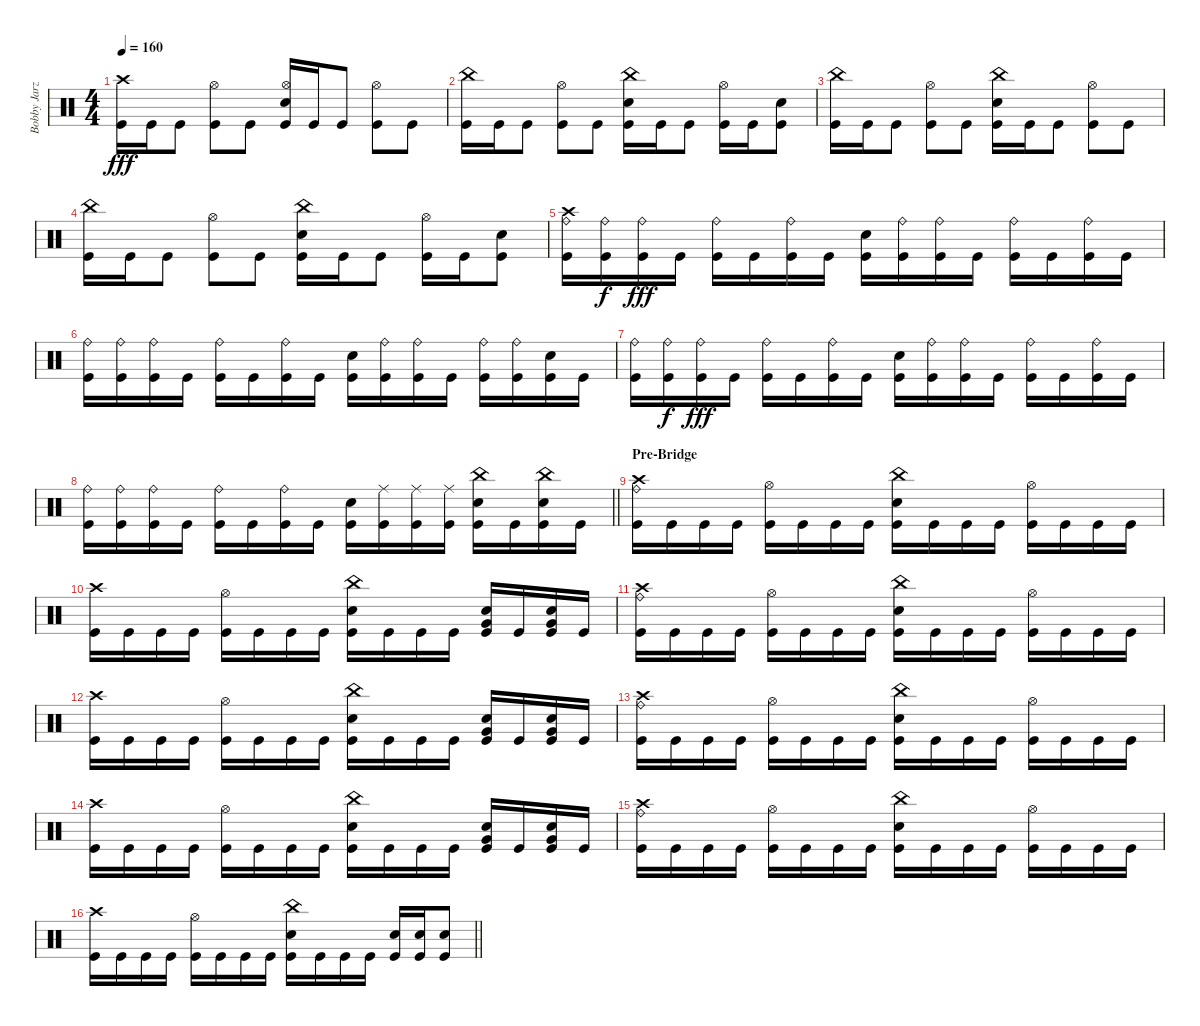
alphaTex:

\track ("Bobby Jarzombek" "Bobby Jarz") {instrument percussion}
\staff {score}
\articulation defaults
\ts (4 4)
\tempo 160
\clef neutral
\ks c
("Crash high (hit)" "Kick (hit)").16{dy fff} "Kick (hit)".16 "Kick (hit)".8 ("Hi-Hat (open)" "Kick (hit)").8 "Kick (hit)".8 ("Hi-Hat (open)" "Electric Snare (hit)" "Kick (hit)").16 "Kick (hit)".16 "Kick (hit)".8 ("Hi-Hat (open)" "Kick (hit)").8 "Kick (hit)".8 |
("China (hit)" "Kick (hit)").16 "Kick (hit)".16 "Kick (hit)".8 ("Hi-Hat (open)" "Kick (hit)").8 "Kick (hit)".8 ("China (hit)" "Electric Snare (hit)" "Kick (hit)").16 "Kick (hit)".16 "Kick (hit)".8 ("Hi-Hat (open)" "Kick (hit)").16 "Kick (hit)".16 ("Electric Snare (hit)" "Kick (hit)").8 |
("China (hit)" "Kick (hit)").16 "Kick (hit)".16 "Kick (hit)".8 ("Hi-Hat (open)" "Kick (hit)").8 "Kick (hit)".8 ("China (hit)" "Electric Snare (hit)" "Kick (hit)").16 "Kick (hit)".16 "Kick (hit)".8 ("Hi-Hat (open)" "Kick (hit)").8 "Kick (hit)".8 |
("China (hit)" "Kick (hit)").16 "Kick (hit)".16 "Kick (hit)".8 ("Hi-Hat (open)" "Kick (hit)").8 "Kick (hit)".8 ("China (hit)" "Electric Snare (hit)" "Kick (hit)").16 "Kick (hit)".16 "Kick (hit)".8 ("Hi-Hat (open)" "Kick (hit)").16 "Kick (hit)".16 ("Electric Snare (hit)" "Kick (hit)").8 |
("Crash high (hit)" "Ride (bell)" "Kick (hit)").16 ("Ride (bell)" "Kick (hit)").16{dy f} ("Ride (bell)" "Kick (hit)").16{dy fff} "Kick (hit)".16 ("Ride (bell)" "Kick (hit)").16 "Kick (hit)".16 ("Ride (bell)" "Kick (hit)").16 "Kick (hit)".16 ("Electric Snare (hit)" "Kick (hit)").16 ("Ride (bell)" "Kick (hit)").16 ("Ride (bell)" "Kick (hit)").16 "Kick (hit)".16 ("Ride (bell)" "Kick (hit)").16 "Kick (hit)".16 ("Ride (bell)" "Kick (hit)").16 "Kick (hit)".16 |
("Ride (bell)" "Kick (hit)").16 ("Ride (bell)" "Kick (hit)").16 ("Ride (bell)" "Kick (hit)").16 "Kick (hit)".16 ("Ride (bell)" "Kick (hit)").16 "Kick (hit)".16 ("Ride (bell)" "Kick (hit)").16 "Kick (hit)".16 ("Electric Snare (hit)" "Kick (hit)").16 ("Ride (bell)" "Kick (hit)").16 ("Ride (bell)" "Kick (hit)").16 "Kick (hit)".16 ("Ride (bell)" "Kick (hit)").16 ("Ride (bell)" "Kick (hit)").16 ("Electric Snare (hit)" "Kick (hit)").16 "Kick (hit)".16 |
("Ride (bell)" "Kick (hit)").16 ("Ride (bell)" "Kick (hit)").16{dy f} ("Ride (bell)" "Kick (hit)").16{dy fff} "Kick (hit)".16 ("Ride (bell)" "Kick (hit)").16 "Kick (hit)".16 ("Ride (bell)" "Kick (hit)").16 "Kick (hit)".16 ("Electric Snare (hit)" "Kick (hit)").16 ("Ride (bell)" "Kick (hit)").16 ("Ride (bell)" "Kick (hit)").16 "Kick (hit)".16 ("Ride (bell)" "Kick (hit)").16 "Kick (hit)".16 ("Ride (bell)" "Kick (hit)").16 "Kick (hit)".16 |
\barLineRight lightlight
("Ride (bell)" "Kick (hit)").16 ("Ride (bell)" "Kick (hit)").16 ("Ride (bell)" "Kick (hit)").16 "Kick (hit)".16 ("Ride (bell)" "Kick (hit)").16 "Kick (hit)".16 ("Ride (bell)" "Kick (hit)").16 "Kick (hit)".16 ("Electric Snare (hit)" "Kick (hit)").16 ("Ride (middle)" "Kick (hit)").16 ("Ride (middle)" "Kick (hit)").16 ("Ride (middle)" "Kick (hit)").16 ("China (hit)" "Electric Snare (hit)" "Kick (hit)").16 "Kick (hit)".16 ("China (hit)" "Electric Snare (hit)" "Kick (hit)").16 "Kick (hit)".16 |
\section ("" "Pre-Bridge")
("Crash high (hit)" "Ride (bell)" "Kick (hit)").16 "Kick (hit)".16 "Kick (hit)".16 "Kick (hit)".16 ("Hi-Hat (open)" "Kick (hit)").16 "Kick (hit)".16 "Kick (hit)".16 "Kick (hit)".16 ("China (hit)" "Electric Snare (hit)" "Kick (hit)").16 "Kick (hit)".16 "Kick (hit)".16 "Kick (hit)".16 ("Hi-Hat (open)" "Kick (hit)").16 "Kick (hit)".16 "Kick (hit)".16 "Kick (hit)".16 |
("Crash high (hit)" "Kick (hit)").16 "Kick (hit)".16 "Kick (hit)".16 "Kick (hit)".16 ("Hi-Hat (open)" "Kick (hit)").16 "Kick (hit)".16 "Kick (hit)".16 "Kick (hit)".16 ("China (hit)" "Electric Snare (hit)" "Kick (hit)").16 "Kick (hit)".16 "Kick (hit)".16 "Kick (hit)".16 ("Very Low Tom (hit)" "Electric Snare (hit)" "Kick (hit)").16 "Kick (hit)".16 ("Very Low Tom (hit)" "Electric Snare (hit)" "Kick (hit)").16 "Kick (hit)".16 |
("Crash high (hit)" "Ride (bell)" "Kick (hit)").16 "Kick (hit)".16 "Kick (hit)".16 "Kick (hit)".16 ("Hi-Hat (open)" "Kick (hit)").16 "Kick (hit)".16 "Kick (hit)".16 "Kick (hit)".16 ("China (hit)" "Electric Snare (hit)" "Kick (hit)").16 "Kick (hit)".16 "Kick (hit)".16 "Kick (hit)".16 ("Hi-Hat (open)" "Kick (hit)").16 "Kick (hit)".16 "Kick (hit)".16 "Kick (hit)".16 |
("Crash high (hit)" "Kick (hit)").16 "Kick (hit)".16 "Kick (hit)".16 "Kick (hit)".16 ("Hi-Hat (open)" "Kick (hit)").16 "Kick (hit)".16 "Kick (hit)".16 "Kick (hit)".16 ("China (hit)" "Electric Snare (hit)" "Kick (hit)").16 "Kick (hit)".16 "Kick (hit)".16 "Kick (hit)".16 ("Very Low Tom (hit)" "Electric Snare (hit)" "Kick (hit)").16 "Kick (hit)".16 ("Very Low Tom (hit)" "Electric Snare (hit)" "Kick (hit)").16 "Kick (hit)".16 |
("Crash high (hit)" "Ride (bell)" "Kick (hit)").16 "Kick (hit)".16 "Kick (hit)".16 "Kick (hit)".16 ("Hi-Hat (open)" "Kick (hit)").16 "Kick (hit)".16 "Kick (hit)".16 "Kick (hit)".16 ("China (hit)" "Electric Snare (hit)" "Kick (hit)").16 "Kick (hit)".16 "Kick (hit)".16 "Kick (hit)".16 ("Hi-Hat (open)" "Kick (hit)").16 "Kick (hit)".16 "Kick (hit)".16 "Kick (hit)".16 |
("Crash high (hit)" "Kick (hit)").16 "Kick (hit)".16 "Kick (hit)".16 "Kick (hit)".16 ("Hi-Hat (open)" "Kick (hit)").16 "Kick (hit)".16 "Kick (hit)".16 "Kick (hit)".16 ("China (hit)" "Electric Snare (hit)" "Kick (hit)").16 "Kick (hit)".16 "Kick (hit)".16 "Kick (hit)".16 ("Very Low Tom (hit)" "Electric Snare (hit)" "Kick (hit)").16 "Kick (hit)".16 ("Very Low Tom (hit)" "Electric Snare (hit)" "Kick (hit)").16 "Kick (hit)".16 |
("Crash high (hit)" "Ride (bell)" "Kick (hit)").16 "Kick (hit)".16 "Kick (hit)".16 "Kick (hit)".16 ("Hi-Hat (open)" "Kick (hit)").16 "Kick (hit)".16 "Kick (hit)".16 "Kick (hit)".16 ("China (hit)" "Electric Snare (hit)" "Kick (hit)").16 "Kick (hit)".16 "Kick (hit)".16 "Kick (hit)".16 ("Hi-Hat (open)" "Kick (hit)").16 "Kick (hit)".16 "Kick (hit)".16 "Kick (hit)".16 |
\barLineRight lightlight
("Crash high (hit)" "Kick (hit)").16 "Kick (hit)".16 "Kick (hit)".16 "Kick (hit)".16 ("Hi-Hat (open)" "Kick (hit)").16 "Kick (hit)".16 "Kick (hit)".16 "Kick (hit)".16 ("China (hit)" "Electric Snare (hit)" "Kick (hit)").16 "Kick (hit)".16 "Kick (hit)".16 "Kick (hit)".16 ("Electric Snare (hit)" "Kick (hit)").16 ("Electric Snare (hit)" "Kick (hit)").16 ("Electric Snare (hit)" "Kick (hit)").8
